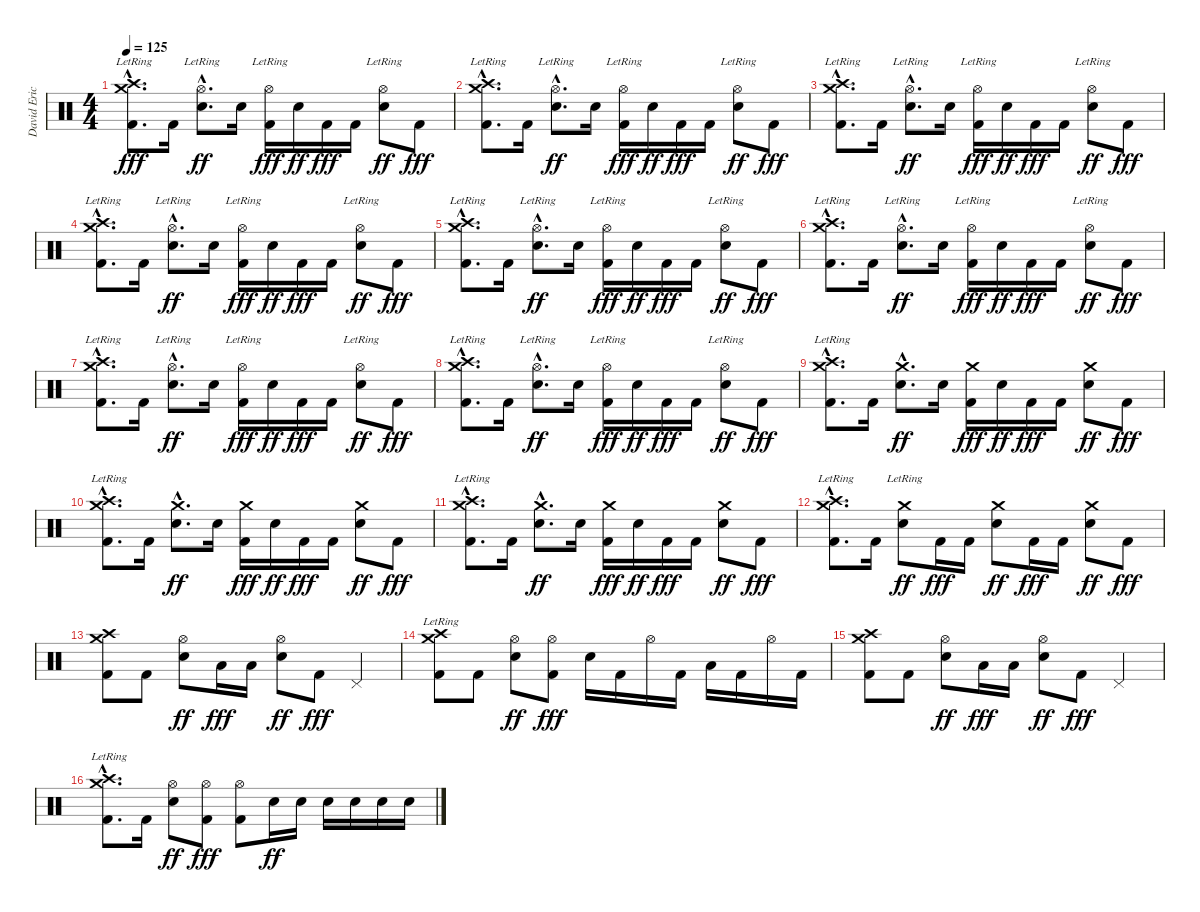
\track ("David Eric Grohl" "David Eric") {instrument percussion}
\staff {score}
\articulation defaults
\ts (4 4)
\tempo 125
\clef neutral
\ks c
("Crash medium (hit)"{hac lr} "Crash high (hit)"{hac lr} "Kick (hit) 2"{hac}).8{d dy fff} "Kick (hit) 2".16 ("Hi-Hat (open)"{hac lr} "Electric Snare (hit)"{hac}).8{d dy ff} "Electric Snare (hit)".16 ("Hi-Hat (open)"{lr} "Kick (hit) 2").16{dy fff} "Electric Snare (hit)".16{dy ff} "Kick (hit) 2".16{dy fff} "Kick (hit) 2".16 ("Hi-Hat (open)"{lr} "Electric Snare (hit)").8{dy ff} "Kick (hit) 2".8{dy fff} |
("Crash medium (hit)"{hac lr} "Crash high (hit)"{hac lr} "Kick (hit) 2"{hac}).8{d} "Kick (hit) 2".16 ("Hi-Hat (open)"{hac lr} "Electric Snare (hit)"{hac}).8{d dy ff} "Electric Snare (hit)".16 ("Hi-Hat (open)"{lr} "Kick (hit) 2").16{dy fff} "Electric Snare (hit)".16{dy ff} "Kick (hit) 2".16{dy fff} "Kick (hit) 2".16 ("Hi-Hat (open)"{lr} "Electric Snare (hit)").8{dy ff} "Kick (hit) 2".8{dy fff} |
("Crash medium (hit)"{hac lr} "Crash high (hit)"{hac lr} "Kick (hit) 2"{hac}).8{d} "Kick (hit) 2".16 ("Hi-Hat (open)"{hac lr} "Electric Snare (hit)"{hac}).8{d dy ff} "Electric Snare (hit)".16 ("Hi-Hat (open)"{lr} "Kick (hit) 2").16{dy fff} "Electric Snare (hit)".16{dy ff} "Kick (hit) 2".16{dy fff} "Kick (hit) 2".16 ("Hi-Hat (open)"{lr} "Electric Snare (hit)").8{dy ff} "Kick (hit) 2".8{dy fff} |
("Crash medium (hit)"{hac lr} "Crash high (hit)"{hac lr} "Kick (hit) 2"{hac}).8{d} "Kick (hit) 2".16 ("Hi-Hat (open)"{hac lr} "Electric Snare (hit)"{hac}).8{d dy ff} "Electric Snare (hit)".16 ("Hi-Hat (open)"{lr} "Kick (hit) 2").16{dy fff} "Electric Snare (hit)".16{dy ff} "Kick (hit) 2".16{dy fff} "Kick (hit) 2".16 ("Hi-Hat (open)"{lr} "Electric Snare (hit)").8{dy ff} "Kick (hit) 2".8{dy fff} |
("Crash medium (hit)"{hac lr} "Crash high (hit)"{hac lr} "Kick (hit) 2"{hac}).8{d} "Kick (hit) 2".16 ("Hi-Hat (open)"{hac lr} "Electric Snare (hit)"{hac}).8{d dy ff} "Electric Snare (hit)".16 ("Hi-Hat (open)"{lr} "Kick (hit) 2").16{dy fff} "Electric Snare (hit)".16{dy ff} "Kick (hit) 2".16{dy fff} "Kick (hit) 2".16 ("Hi-Hat (open)"{lr} "Electric Snare (hit)").8{dy ff} "Kick (hit) 2".8{dy fff} |
("Crash medium (hit)"{hac lr} "Crash high (hit)"{hac lr} "Kick (hit) 2"{hac}).8{d} "Kick (hit) 2".16 ("Hi-Hat (open)"{hac lr} "Electric Snare (hit)"{hac}).8{d dy ff} "Electric Snare (hit)".16 ("Hi-Hat (open)"{lr} "Kick (hit) 2").16{dy fff} "Electric Snare (hit)".16{dy ff} "Kick (hit) 2".16{dy fff} "Kick (hit) 2".16 ("Hi-Hat (open)"{lr} "Electric Snare (hit)").8{dy ff} "Kick (hit) 2".8{dy fff} |
("Crash medium (hit)"{hac lr} "Crash high (hit)"{hac lr} "Kick (hit) 2"{hac}).8{d} "Kick (hit) 2".16 ("Hi-Hat (open)"{hac lr} "Electric Snare (hit)"{hac}).8{d dy ff} "Electric Snare (hit)".16 ("Hi-Hat (open)"{lr} "Kick (hit) 2").16{dy fff} "Electric Snare (hit)".16{dy ff} "Kick (hit) 2".16{dy fff} "Kick (hit) 2".16 ("Hi-Hat (open)"{lr} "Electric Snare (hit)").8{dy ff} "Kick (hit) 2".8{dy fff} |
("Crash medium (hit)"{hac lr} "Crash high (hit)"{hac lr} "Kick (hit) 2"{hac}).8{d} "Kick (hit) 2".16 ("Hi-Hat (open)"{hac lr} "Electric Snare (hit)"{hac}).8{d dy ff} "Electric Snare (hit)".16 ("Hi-Hat (open)"{lr} "Kick (hit) 2").16{dy fff} "Electric Snare (hit)".16{dy ff} "Kick (hit) 2".16{dy fff} "Kick (hit) 2".16 ("Hi-Hat (open)"{lr} "Electric Snare (hit)").8{dy ff} "Kick (hit) 2".8{dy fff} |
("Crash medium (hit)"{hac lr} "Crash high (hit)"{hac lr} "Kick (hit) 2"{hac}).8{d} "Kick (hit) 2".16 ("Crash medium (hit)"{hac} "Electric Snare (hit)"{hac}).8{d dy ff} "Electric Snare (hit)".16 ("Crash medium (hit)" "Kick (hit) 2").16{dy fff} "Electric Snare (hit)".16{dy ff} "Kick (hit) 2".16{dy fff} "Kick (hit) 2".16 ("Crash medium (hit)" "Electric Snare (hit)").8{dy ff} "Kick (hit) 2".8{dy fff} |
("Crash medium (hit)"{hac lr} "Crash high (hit)"{hac lr} "Kick (hit) 2"{hac}).8{d} "Kick (hit) 2".16 ("Crash medium (hit)"{hac} "Electric Snare (hit)"{hac}).8{d dy ff} "Electric Snare (hit)".16 ("Crash medium (hit)" "Kick (hit) 2").16{dy fff} "Electric Snare (hit)".16{dy ff} "Kick (hit) 2".16{dy fff} "Kick (hit) 2".16 ("Crash medium (hit)" "Electric Snare (hit)").8{dy ff} "Kick (hit) 2".8{dy fff} |
("Crash medium (hit)"{hac lr} "Crash high (hit)"{hac lr} "Kick (hit) 2"{hac}).8{d} "Kick (hit) 2".16 ("Crash medium (hit)"{hac} "Electric Snare (hit)"{hac}).8{d dy ff} "Electric Snare (hit)".16 ("Crash medium (hit)" "Kick (hit) 2").16{dy fff} "Electric Snare (hit)".16{dy ff} "Kick (hit) 2".16{dy fff} "Kick (hit) 2".16 ("Crash medium (hit)" "Electric Snare (hit)").8{dy ff} "Kick (hit) 2".8{dy fff} |
("Crash medium (hit)"{hac lr} "Crash high (hit)"{hac lr} "Kick (hit) 2"{hac}).8{d} "Kick (hit) 2".16 ("Crash medium (hit)"{lr} "Electric Snare (hit)").8{dy ff} "Kick (hit) 2".16{dy fff} "Kick (hit) 2".16 ("Crash medium (hit)" "Electric Snare (hit)").8{dy ff} "Kick (hit) 2".16{dy fff} "Kick (hit) 2".16 ("Crash medium (hit)" "Electric Snare (hit)").8{dy ff} "Kick (hit) 2".8{dy fff} |
("Crash medium (hit)" "Crash high (hit)" "Kick (hit) 2").8 "Kick (hit) 2".8 ("Hi-Hat (open)" "Electric Snare (hit)").8{dy ff} "Low Tom (hit)".16{dy fff} "Low Tom (hit)".16 ("Hi-Hat (open)" "Electric Snare (hit)").8{dy ff} "Kick (hit) 2".8{dy fff} "Pedal Hi-Hat (hit)".4 |
("Crash medium (hit)"{lr} "Crash high (hit)"{lr} "Kick (hit) 2").8 "Kick (hit) 2".8 ("Hi-Hat (open)" "Electric Snare (hit)").8{dy ff} ("Hi-Hat (open)" "Kick (hit) 2").8{dy fff} "Electric Snare (hit)".16 "Kick (hit) 2".16 "Hi-Hat (open)".16 "Kick (hit) 2".16 "Low Tom (hit)".16 "Kick (hit) 2".16 "Hi-Hat (open)".16 "Kick (hit) 2".16 |
("Crash medium (hit)" "Crash high (hit)" "Kick (hit) 2").8 "Kick (hit) 2".8 ("Hi-Hat (open)" "Electric Snare (hit)").8{dy ff} "Low Tom (hit)".16{dy fff} "Low Tom (hit)".16 ("Hi-Hat (open)" "Electric Snare (hit)").8{dy ff} "Kick (hit) 2".8{dy fff} "Pedal Hi-Hat (hit)".4 |
("Crash medium (hit)"{hac lr} "Crash high (hit)"{hac lr} "Kick (hit) 2"{hac}).8{d} "Kick (hit) 2".16 ("Hi-Hat (open)" "Electric Snare (hit)").8{dy ff} ("Hi-Hat (open)" "Kick (hit) 2").8{dy fff} ("Hi-Hat (open)" "Kick (hit) 2").8 "Electric Snare (hit)".16{dy ff} "Electric Snare (hit)".16 "Electric Snare (hit)".16 "Electric Snare (hit)".16 "Electric Snare (hit)".16 "Electric Snare (hit)".16
